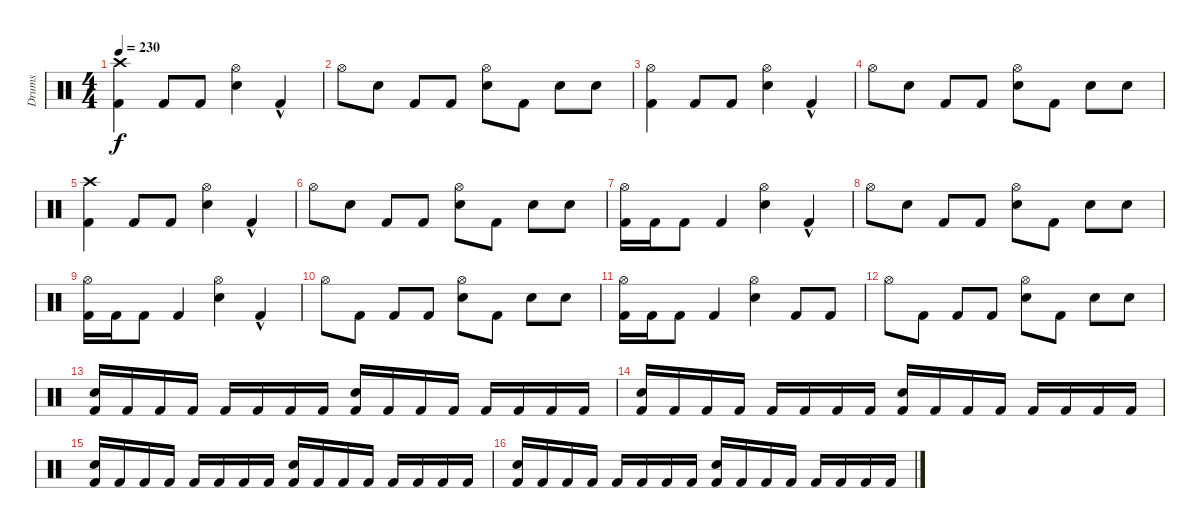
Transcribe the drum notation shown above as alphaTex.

\track ("Drums" "Drums") {instrument percussion}
\staff {score}
\articulation defaults
\ts (4 4)
\tempo 230
\clef neutral
\ks c
("Crash high (hit)" "Kick (hit) 2").4{dy f} "Kick (hit) 2".8 "Kick (hit) 2".8 ("Hi-Hat (open)" "Electric Snare (hit)").4 "Kick (hit) 2"{hac}.4 |
"Hi-Hat (open)".8 "Electric Snare (hit)".8 "Kick (hit) 2".8 "Kick (hit) 2".8 ("Hi-Hat (open)" "Electric Snare (hit)").8 "Kick (hit) 2".8 "Electric Snare (hit)".8 "Electric Snare (hit)".8 |
("Hi-Hat (open)" "Kick (hit) 2").4 "Kick (hit) 2".8 "Kick (hit) 2".8 ("Hi-Hat (open)" "Electric Snare (hit)").4 "Kick (hit) 2"{hac}.4 |
"Hi-Hat (open)".8 "Electric Snare (hit)".8 "Kick (hit) 2".8 "Kick (hit) 2".8 ("Hi-Hat (open)" "Electric Snare (hit)").8 "Kick (hit) 2".8 "Electric Snare (hit)".8 "Electric Snare (hit)".8 |
("Crash high (hit)" "Kick (hit) 2").4 "Kick (hit) 2".8 "Kick (hit) 2".8 ("Hi-Hat (open)" "Electric Snare (hit)").4 "Kick (hit) 2"{hac}.4 |
"Hi-Hat (open)".8 "Electric Snare (hit)".8 "Kick (hit) 2".8 "Kick (hit) 2".8 ("Hi-Hat (open)" "Electric Snare (hit)").8 "Kick (hit) 2".8 "Electric Snare (hit)".8 "Electric Snare (hit)".8 |
("Hi-Hat (open)" "Kick (hit) 2").16 "Kick (hit) 2".16 "Kick (hit) 2".8 "Kick (hit) 2".4 ("Hi-Hat (open)" "Electric Snare (hit)").4 "Kick (hit) 2"{hac}.4 |
"Hi-Hat (open)".8 "Electric Snare (hit)".8 "Kick (hit) 2".8 "Kick (hit) 2".8 ("Hi-Hat (open)" "Electric Snare (hit)").8 "Kick (hit) 2".8 "Electric Snare (hit)".8 "Electric Snare (hit)".8 |
("Hi-Hat (open)" "Kick (hit) 2").16 "Kick (hit) 2".16 "Kick (hit) 2".8 "Kick (hit) 2".4 ("Hi-Hat (open)" "Electric Snare (hit)").4 "Kick (hit) 2"{hac}.4 |
"Hi-Hat (open)".8 "Kick (hit) 2".8 "Kick (hit) 2".8 "Kick (hit) 2".8 ("Hi-Hat (open)" "Electric Snare (hit)").8 "Kick (hit) 2".8 "Electric Snare (hit)".8 "Electric Snare (hit)".8 |
("Hi-Hat (open)" "Kick (hit) 2").16 "Kick (hit) 2".16 "Kick (hit) 2".8 "Kick (hit) 2".4 ("Hi-Hat (open)" "Electric Snare (hit)").4 "Kick (hit) 2".8 "Kick (hit) 2".8 |
"Hi-Hat (open)".8 "Kick (hit) 2".8 "Kick (hit) 2".8 "Kick (hit) 2".8 ("Hi-Hat (open)" "Electric Snare (hit)").8 "Kick (hit) 2".8 "Electric Snare (hit)".8 "Electric Snare (hit)".8 |
("Electric Snare (hit)" "Kick (hit) 2").16 "Kick (hit) 2".16 "Kick (hit) 2".16 "Kick (hit) 2".16 "Kick (hit) 2".16 "Kick (hit) 2".16 "Kick (hit) 2".16 "Kick (hit) 2".16 ("Electric Snare (hit)" "Kick (hit) 2").16 "Kick (hit) 2".16 "Kick (hit) 2".16 "Kick (hit) 2".16 "Kick (hit) 2".16 "Kick (hit) 2".16 "Kick (hit) 2".16 "Kick (hit) 2".16 |
("Electric Snare (hit)" "Kick (hit) 2").16 "Kick (hit) 2".16 "Kick (hit) 2".16 "Kick (hit) 2".16 "Kick (hit) 2".16 "Kick (hit) 2".16 "Kick (hit) 2".16 "Kick (hit) 2".16 ("Electric Snare (hit)" "Kick (hit) 2").16 "Kick (hit) 2".16 "Kick (hit) 2".16 "Kick (hit) 2".16 "Kick (hit) 2".16 "Kick (hit) 2".16 "Kick (hit) 2".16 "Kick (hit) 2".16 |
("Electric Snare (hit)" "Kick (hit) 2").16 "Kick (hit) 2".16 "Kick (hit) 2".16 "Kick (hit) 2".16 "Kick (hit) 2".16 "Kick (hit) 2".16 "Kick (hit) 2".16 "Kick (hit) 2".16 ("Electric Snare (hit)" "Kick (hit) 2").16 "Kick (hit) 2".16 "Kick (hit) 2".16 "Kick (hit) 2".16 "Kick (hit) 2".16 "Kick (hit) 2".16 "Kick (hit) 2".16 "Kick (hit) 2".16 |
("Electric Snare (hit)" "Kick (hit) 2").16 "Kick (hit) 2".16 "Kick (hit) 2".16 "Kick (hit) 2".16 "Kick (hit) 2".16 "Kick (hit) 2".16 "Kick (hit) 2".16 "Kick (hit) 2".16 ("Electric Snare (hit)" "Kick (hit) 2").16 "Kick (hit) 2".16 "Kick (hit) 2".16 "Kick (hit) 2".16 "Kick (hit) 2".16 "Kick (hit) 2".16 "Kick (hit) 2".16 "Kick (hit) 2".16
